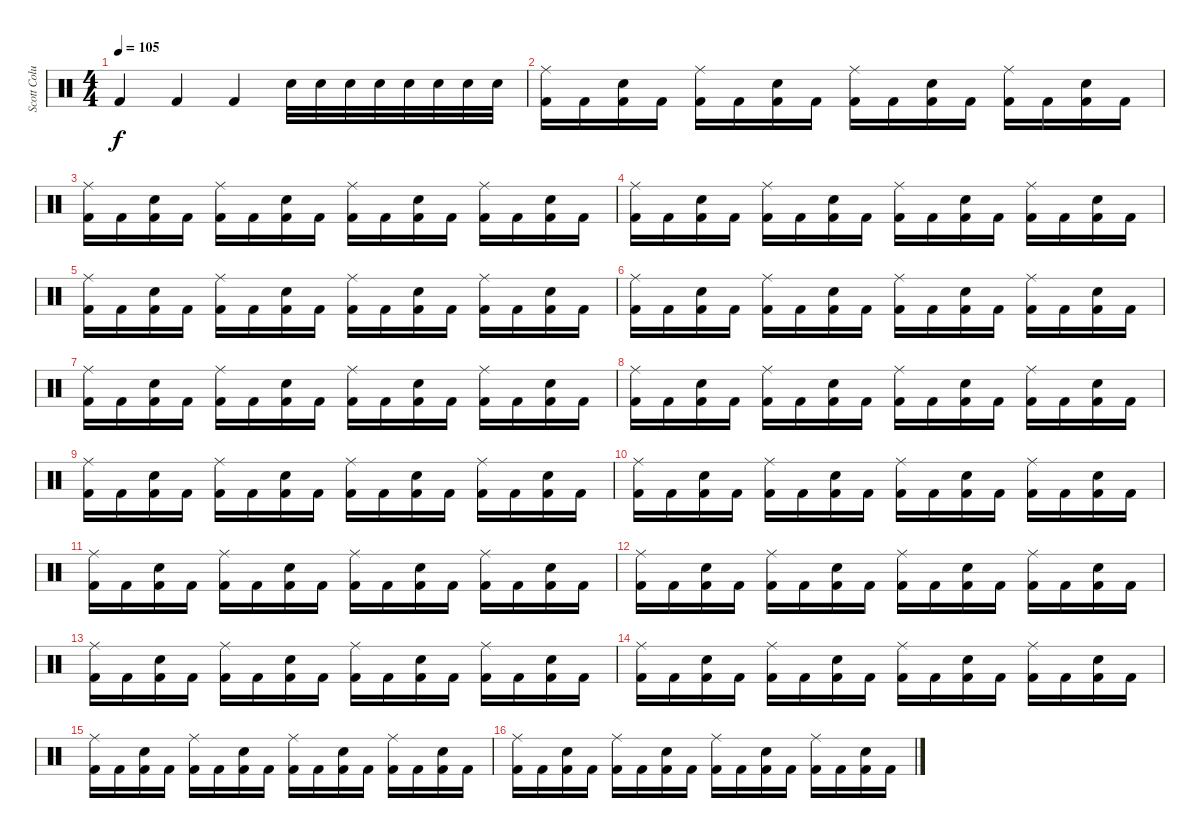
\track ("Scott Columbus" "Scott Colu") {instrument percussion}
\staff {score}
\articulation defaults
\ts (4 4)
\tempo 105
\clef neutral
\ks c "Kick (hit) 2".4{dy f} "Kick (hit) 2".4 "Kick (hit) 2".4 "Snare (hit) 2".32 "Snare (hit) 2".32 "Snare (hit) 2".32 "Snare (hit) 2".32 "Snare (hit) 2".32 "Snare (hit) 2".32 "Snare (hit) 2".32 "Snare (hit) 2".32
|
("Ride (middle)" "Kick (hit) 2").16 "Kick (hit) 2".16 ("Snare (hit) 2" "Kick (hit) 2").16 "Kick (hit) 2".16 ("Ride (middle)" "Kick (hit) 2").16 "Kick (hit) 2".16 ("Snare (hit) 2" "Kick (hit) 2").16 "Kick (hit) 2".16 ("Ride (middle)" "Kick (hit) 2").16 "Kick (hit) 2".16 ("Snare (hit) 2" "Kick (hit) 2").16 "Kick (hit) 2".16 ("Ride (middle)" "Kick (hit) 2").16 "Kick (hit) 2".16 ("Snare (hit) 2" "Kick (hit) 2").16 "Kick (hit) 2".16 |
("Ride (middle)" "Kick (hit) 2").16 "Kick (hit) 2".16 ("Snare (hit) 2" "Kick (hit) 2").16 "Kick (hit) 2".16 ("Ride (middle)" "Kick (hit) 2").16 "Kick (hit) 2".16 ("Snare (hit) 2" "Kick (hit) 2").16 "Kick (hit) 2".16 ("Ride (middle)" "Kick (hit) 2").16 "Kick (hit) 2".16 ("Snare (hit) 2" "Kick (hit) 2").16 "Kick (hit) 2".16 ("Ride (middle)" "Kick (hit) 2").16 "Kick (hit) 2".16 ("Snare (hit) 2" "Kick (hit) 2").16 "Kick (hit) 2".16 |
("Ride (middle)" "Kick (hit) 2").16 "Kick (hit) 2".16 ("Snare (hit) 2" "Kick (hit) 2").16 "Kick (hit) 2".16 ("Ride (middle)" "Kick (hit) 2").16 "Kick (hit) 2".16 ("Snare (hit) 2" "Kick (hit) 2").16 "Kick (hit) 2".16 ("Ride (middle)" "Kick (hit) 2").16 "Kick (hit) 2".16 ("Snare (hit) 2" "Kick (hit) 2").16 "Kick (hit) 2".16 ("Ride (middle)" "Kick (hit) 2").16 "Kick (hit) 2".16 ("Snare (hit) 2" "Kick (hit) 2").16 "Kick (hit) 2".16 |
("Ride (middle)" "Kick (hit) 2").16 "Kick (hit) 2".16 ("Snare (hit) 2" "Kick (hit) 2").16 "Kick (hit) 2".16 ("Ride (middle)" "Kick (hit) 2").16 "Kick (hit) 2".16 ("Snare (hit) 2" "Kick (hit) 2").16 "Kick (hit) 2".16 ("Ride (middle)" "Kick (hit) 2").16 "Kick (hit) 2".16 ("Snare (hit) 2" "Kick (hit) 2").16 "Kick (hit) 2".16 ("Ride (middle)" "Kick (hit) 2").16 "Kick (hit) 2".16 ("Snare (hit) 2" "Kick (hit) 2").16 "Kick (hit) 2".16 |
("Ride (middle)" "Kick (hit) 2").16 "Kick (hit) 2".16 ("Snare (hit) 2" "Kick (hit) 2").16 "Kick (hit) 2".16 ("Ride (middle)" "Kick (hit) 2").16 "Kick (hit) 2".16 ("Snare (hit) 2" "Kick (hit) 2").16 "Kick (hit) 2".16 ("Ride (middle)" "Kick (hit) 2").16 "Kick (hit) 2".16 ("Snare (hit) 2" "Kick (hit) 2").16 "Kick (hit) 2".16 ("Ride (middle)" "Kick (hit) 2").16 "Kick (hit) 2".16 ("Snare (hit) 2" "Kick (hit) 2").16 "Kick (hit) 2".16 |
("Ride (middle)" "Kick (hit) 2").16 "Kick (hit) 2".16 ("Snare (hit) 2" "Kick (hit) 2").16 "Kick (hit) 2".16 ("Ride (middle)" "Kick (hit) 2").16 "Kick (hit) 2".16 ("Snare (hit) 2" "Kick (hit) 2").16 "Kick (hit) 2".16 ("Ride (middle)" "Kick (hit) 2").16 "Kick (hit) 2".16 ("Snare (hit) 2" "Kick (hit) 2").16 "Kick (hit) 2".16 ("Ride (middle)" "Kick (hit) 2").16 "Kick (hit) 2".16 ("Snare (hit) 2" "Kick (hit) 2").16 "Kick (hit) 2".16 |
("Ride (middle)" "Kick (hit) 2").16 "Kick (hit) 2".16 ("Snare (hit) 2" "Kick (hit) 2").16 "Kick (hit) 2".16 ("Ride (middle)" "Kick (hit) 2").16 "Kick (hit) 2".16 ("Snare (hit) 2" "Kick (hit) 2").16 "Kick (hit) 2".16 ("Ride (middle)" "Kick (hit) 2").16 "Kick (hit) 2".16 ("Snare (hit) 2" "Kick (hit) 2").16 "Kick (hit) 2".16 ("Ride (middle)" "Kick (hit) 2").16 "Kick (hit) 2".16 ("Snare (hit) 2" "Kick (hit) 2").16 "Kick (hit) 2".16 |
("Ride (middle)" "Kick (hit) 2").16 "Kick (hit) 2".16 ("Snare (hit) 2" "Kick (hit) 2").16 "Kick (hit) 2".16 ("Ride (middle)" "Kick (hit) 2").16 "Kick (hit) 2".16 ("Snare (hit) 2" "Kick (hit) 2").16 "Kick (hit) 2".16 ("Ride (middle)" "Kick (hit) 2").16 "Kick (hit) 2".16 ("Snare (hit) 2" "Kick (hit) 2").16 "Kick (hit) 2".16 ("Ride (middle)" "Kick (hit) 2").16 "Kick (hit) 2".16 ("Snare (hit) 2" "Kick (hit) 2").16 "Kick (hit) 2".16 |
("Ride (middle)" "Kick (hit) 2").16 "Kick (hit) 2".16 ("Snare (hit) 2" "Kick (hit) 2").16 "Kick (hit) 2".16 ("Ride (middle)" "Kick (hit) 2").16 "Kick (hit) 2".16 ("Snare (hit) 2" "Kick (hit) 2").16 "Kick (hit) 2".16 ("Ride (middle)" "Kick (hit) 2").16 "Kick (hit) 2".16 ("Snare (hit) 2" "Kick (hit) 2").16 "Kick (hit) 2".16 ("Ride (middle)" "Kick (hit) 2").16 "Kick (hit) 2".16 ("Snare (hit) 2" "Kick (hit) 2").16 "Kick (hit) 2".16 |
("Ride (middle)" "Kick (hit) 2").16 "Kick (hit) 2".16 ("Snare (hit) 2" "Kick (hit) 2").16 "Kick (hit) 2".16 ("Ride (middle)" "Kick (hit) 2").16 "Kick (hit) 2".16 ("Snare (hit) 2" "Kick (hit) 2").16 "Kick (hit) 2".16 ("Ride (middle)" "Kick (hit) 2").16 "Kick (hit) 2".16 ("Snare (hit) 2" "Kick (hit) 2").16 "Kick (hit) 2".16 ("Ride (middle)" "Kick (hit) 2").16 "Kick (hit) 2".16 ("Snare (hit) 2" "Kick (hit) 2").16 "Kick (hit) 2".16 |
("Ride (middle)" "Kick (hit) 2").16 "Kick (hit) 2".16 ("Snare (hit) 2" "Kick (hit) 2").16 "Kick (hit) 2".16 ("Ride (middle)" "Kick (hit) 2").16 "Kick (hit) 2".16 ("Snare (hit) 2" "Kick (hit) 2").16 "Kick (hit) 2".16 ("Ride (middle)" "Kick (hit) 2").16 "Kick (hit) 2".16 ("Snare (hit) 2" "Kick (hit) 2").16 "Kick (hit) 2".16 ("Ride (middle)" "Kick (hit) 2").16 "Kick (hit) 2".16 ("Snare (hit) 2" "Kick (hit) 2").16 "Kick (hit) 2".16 |
("Ride (middle)" "Kick (hit) 2").16 "Kick (hit) 2".16 ("Snare (hit) 2" "Kick (hit) 2").16 "Kick (hit) 2".16 ("Ride (middle)" "Kick (hit) 2").16 "Kick (hit) 2".16 ("Snare (hit) 2" "Kick (hit) 2").16 "Kick (hit) 2".16 ("Ride (middle)" "Kick (hit) 2").16 "Kick (hit) 2".16 ("Snare (hit) 2" "Kick (hit) 2").16 "Kick (hit) 2".16 ("Ride (middle)" "Kick (hit) 2").16 "Kick (hit) 2".16 ("Snare (hit) 2" "Kick (hit) 2").16 "Kick (hit) 2".16 |
("Ride (middle)" "Kick (hit) 2").16 "Kick (hit) 2".16 ("Snare (hit) 2" "Kick (hit) 2").16 "Kick (hit) 2".16 ("Ride (middle)" "Kick (hit) 2").16 "Kick (hit) 2".16 ("Snare (hit) 2" "Kick (hit) 2").16 "Kick (hit) 2".16 ("Ride (middle)" "Kick (hit) 2").16 "Kick (hit) 2".16 ("Snare (hit) 2" "Kick (hit) 2").16 "Kick (hit) 2".16 ("Ride (middle)" "Kick (hit) 2").16 "Kick (hit) 2".16 ("Snare (hit) 2" "Kick (hit) 2").16 "Kick (hit) 2".16 |
("Ride (middle)" "Kick (hit) 2").16 "Kick (hit) 2".16 ("Snare (hit) 2" "Kick (hit) 2").16 "Kick (hit) 2".16 ("Ride (middle)" "Kick (hit) 2").16 "Kick (hit) 2".16 ("Snare (hit) 2" "Kick (hit) 2").16 "Kick (hit) 2".16 ("Ride (middle)" "Kick (hit) 2").16 "Kick (hit) 2".16 ("Snare (hit) 2" "Kick (hit) 2").16 "Kick (hit) 2".16 ("Ride (middle)" "Kick (hit) 2").16 "Kick (hit) 2".16 ("Snare (hit) 2" "Kick (hit) 2").16 "Kick (hit) 2".16 |
("Ride (middle)" "Kick (hit) 2").16 "Kick (hit) 2".16 ("Snare (hit) 2" "Kick (hit) 2").16 "Kick (hit) 2".16 ("Ride (middle)" "Kick (hit) 2").16 "Kick (hit) 2".16 ("Snare (hit) 2" "Kick (hit) 2").16 "Kick (hit) 2".16 ("Ride (middle)" "Kick (hit) 2").16 "Kick (hit) 2".16 ("Snare (hit) 2" "Kick (hit) 2").16 "Kick (hit) 2".16 ("Ride (middle)" "Kick (hit) 2").16 "Kick (hit) 2".16 ("Snare (hit) 2" "Kick (hit) 2").16 "Kick (hit) 2".16
